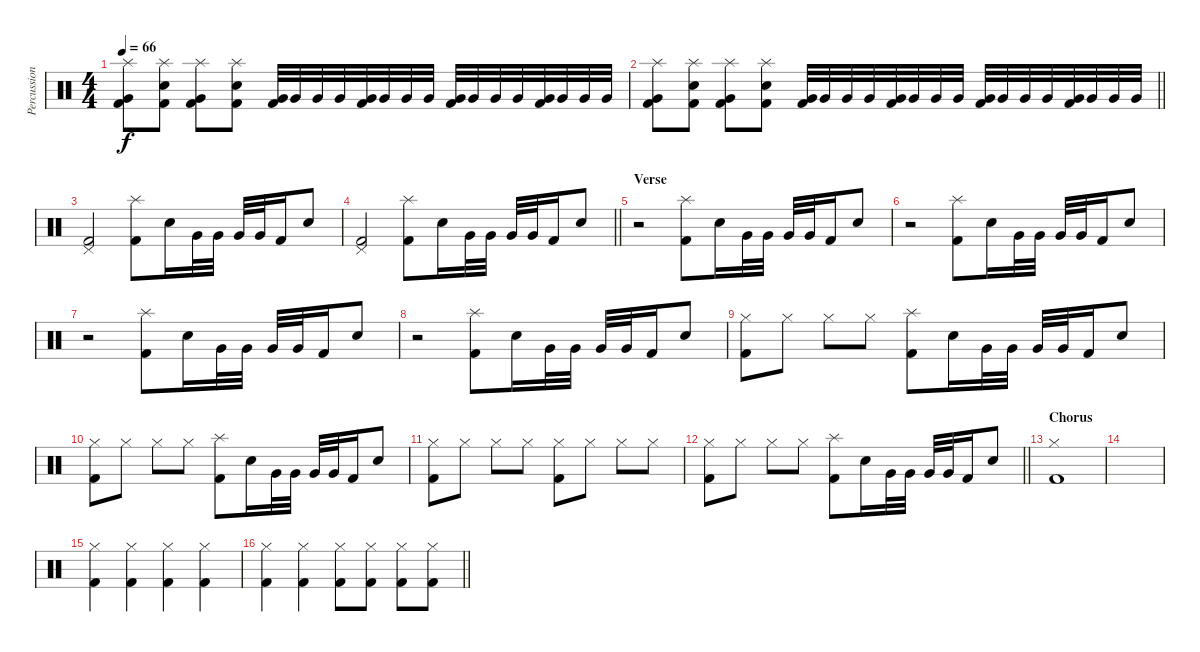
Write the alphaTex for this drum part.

\track ("Percussion" "Percussion") {instrument percussion}
\staff {score}
\articulation defaults
\ts (4 4)
\tempo 66
\clef neutral
\ks c
("Splash (hit)" "Very Low Tom (hit)" "Kick (hit) 2").8{dy f} ("Splash (hit)" "Snare (hit) 2" "Kick (hit) 2").8 ("Splash (hit)" "Very Low Tom (hit)" "Kick (hit) 2").8 ("Splash (hit)" "Snare (hit) 2" "Kick (hit) 2").8 ("Very Low Tom (hit)" "Kick (hit) 2").32 "Very Low Tom (hit)".32 "Very Low Tom (hit)".32 "Very Low Tom (hit)".32 ("Very Low Tom (hit)" "Kick (hit) 2").32 "Very Low Tom (hit)".32 "Very Low Tom (hit)".32 "Very Low Tom (hit)".32 ("Very Low Tom (hit)" "Kick (hit) 2").32 "Very Low Tom (hit)".32 "Very Low Tom (hit)".32 "Very Low Tom (hit)".32 ("Very Low Tom (hit)" "Kick (hit) 2").32 "Very Low Tom (hit)".32 "Very Low Tom (hit)".32 "Very Low Tom (hit)".32 |
\barLineRight lightlight
("Splash (hit)" "Very Low Tom (hit)" "Kick (hit) 2").8 ("Splash (hit)" "Snare (hit) 2" "Kick (hit) 2").8 ("Splash (hit)" "Very Low Tom (hit)" "Kick (hit) 2").8 ("Splash (hit)" "Snare (hit) 2" "Kick (hit) 2").8 ("Very Low Tom (hit)" "Kick (hit) 2").32 "Very Low Tom (hit)".32 "Very Low Tom (hit)".32 "Very Low Tom (hit)".32 ("Very Low Tom (hit)" "Kick (hit) 2").32 "Very Low Tom (hit)".32 "Very Low Tom (hit)".32 "Very Low Tom (hit)".32 ("Very Low Tom (hit)" "Kick (hit) 2").32 "Very Low Tom (hit)".32 "Very Low Tom (hit)".32 "Very Low Tom (hit)".32 ("Very Low Tom (hit)" "Kick (hit) 2").32 "Very Low Tom (hit)".32 "Very Low Tom (hit)".32 "Very Low Tom (hit)".32 |
("Pedal Hi-Hat (hit)" "Kick (hit) 2").2 ("Splash (hit)" "Kick (hit) 2").8 "Snare (hit) 2".16 "Very Low Tom (hit)".32 "Very Low Tom (hit)".32 "Very Low Tom (hit)".32 "Very Low Tom (hit)".32 "Kick (hit) 2".16 "Snare (hit) 2".8 |
\barLineRight lightlight
("Pedal Hi-Hat (hit)" "Kick (hit) 2").2 ("Splash (hit)" "Kick (hit) 2").8 "Snare (hit) 2".16 "Very Low Tom (hit)".32 "Very Low Tom (hit)".32 "Very Low Tom (hit)".32 "Very Low Tom (hit)".32 "Kick (hit) 2".16 "Snare (hit) 2".8 |
\section ("" "Verse")
r.2 ("Splash (hit)" "Kick (hit) 2").8 "Snare (hit) 2".16 "Very Low Tom (hit)".32 "Very Low Tom (hit)".32 "Very Low Tom (hit)".32 "Very Low Tom (hit)".32 "Kick (hit) 2".16 "Snare (hit) 2".8 |
r.2 ("Splash (hit)" "Kick (hit) 2").8 "Snare (hit) 2".16 "Very Low Tom (hit)".32 "Very Low Tom (hit)".32 "Very Low Tom (hit)".32 "Very Low Tom (hit)".32 "Kick (hit) 2".16 "Snare (hit) 2".8 |
r.2 ("Splash (hit)" "Kick (hit) 2").8 "Snare (hit) 2".16 "Very Low Tom (hit)".32 "Very Low Tom (hit)".32 "Very Low Tom (hit)".32 "Very Low Tom (hit)".32 "Kick (hit) 2".16 "Snare (hit) 2".8 |
r.2 ("Splash (hit)" "Kick (hit) 2").8 "Snare (hit) 2".16 "Very Low Tom (hit)".32 "Very Low Tom (hit)".32 "Very Low Tom (hit)".32 "Very Low Tom (hit)".32 "Kick (hit) 2".16 "Snare (hit) 2".8 |
("Hi-Hat (closed)" "Kick (hit) 2").8 "Hi-Hat (closed)".8 "Hi-Hat (closed)".8 "Hi-Hat (closed)".8 ("Splash (hit)" "Kick (hit) 2").8 "Snare (hit) 2".16 "Very Low Tom (hit)".32 "Very Low Tom (hit)".32 "Very Low Tom (hit)".32 "Very Low Tom (hit)".32 "Kick (hit) 2".16 "Snare (hit) 2".8 |
("Hi-Hat (closed)" "Kick (hit) 2").8 "Hi-Hat (closed)".8 "Hi-Hat (closed)".8 "Hi-Hat (closed)".8 ("Splash (hit)" "Kick (hit) 2").8 "Snare (hit) 2".16 "Very Low Tom (hit)".32 "Very Low Tom (hit)".32 "Very Low Tom (hit)".32 "Very Low Tom (hit)".32 "Kick (hit) 2".16 "Snare (hit) 2".8 |
("Hi-Hat (closed)" "Kick (hit) 2").8 "Hi-Hat (closed)".8 "Hi-Hat (closed)".8 "Hi-Hat (closed)".8 ("Hi-Hat (closed)" "Kick (hit) 2").8 "Hi-Hat (closed)".8 "Hi-Hat (closed)".8 "Hi-Hat (closed)".8 |
\barLineRight lightlight
("Hi-Hat (closed)" "Kick (hit) 2").8 "Hi-Hat (closed)".8 "Hi-Hat (closed)".8 "Hi-Hat (closed)".8 ("Splash (hit)" "Kick (hit) 2").8 "Snare (hit) 2".16 "Very Low Tom (hit)".32 "Very Low Tom (hit)".32 "Very Low Tom (hit)".32 "Very Low Tom (hit)".32 "Kick (hit) 2".16 "Snare (hit) 2".8 |
\section ("" "Chorus")
("Hi-Hat (closed)" "Kick (hit) 2").1 |
|
("Hi-Hat (closed)" "Kick (hit) 2").4 ("Hi-Hat (closed)" "Kick (hit) 2").4 ("Hi-Hat (closed)" "Kick (hit) 2").4 ("Hi-Hat (closed)" "Kick (hit) 2").4 |
\barLineRight lightlight
("Hi-Hat (closed)" "Kick (hit) 2").4 ("Hi-Hat (closed)" "Kick (hit) 2").4 ("Hi-Hat (closed)" "Kick (hit) 2").8 ("Hi-Hat (closed)" "Kick (hit) 2").8 ("Hi-Hat (closed)" "Kick (hit) 2").8 ("Hi-Hat (closed)" "Kick (hit) 2").8
